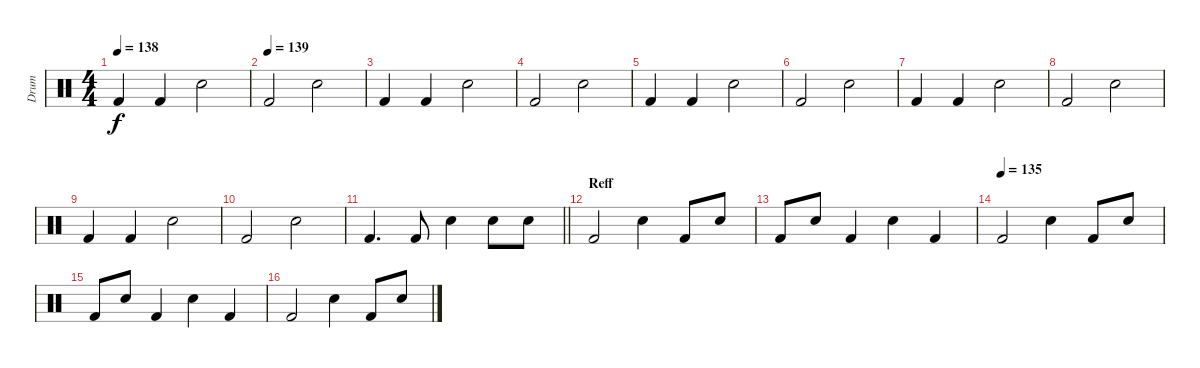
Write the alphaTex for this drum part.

\track ("Drum" "Drum") {instrument percussion}
\staff {score}
\articulation defaults
\ts (4 4)
\tempo 138
\clef neutral
\ks c "Kick (hit) 2".4{dy f} "Kick (hit) 2".4 "Electric Snare (hit)".2
|
\tempo (139)
"Kick (hit) 2".2 "Electric Snare (hit)".2 |
"Kick (hit) 2".4 "Kick (hit) 2".4 "Electric Snare (hit)".2 |
"Kick (hit) 2".2 "Electric Snare (hit)".2 |
"Kick (hit) 2".4 "Kick (hit) 2".4 "Electric Snare (hit)".2 |
"Kick (hit) 2".2 "Electric Snare (hit)".2 |
"Kick (hit) 2".4 "Kick (hit) 2".4 "Electric Snare (hit)".2 |
"Kick (hit) 2".2 "Electric Snare (hit)".2 |
"Kick (hit) 2".4 "Kick (hit) 2".4 "Electric Snare (hit)".2 |
"Kick (hit) 2".2 "Electric Snare (hit)".2 |
\barLineRight lightlight "Kick (hit) 2".4{d} "Kick (hit) 2".8 "Electric Snare (hit)".4 "Electric Snare (hit)".8 "Electric Snare (hit)".8
|
\section ("" "Reff")
"Kick (hit) 2".2 "Electric Snare (hit)".4 "Kick (hit) 2".8 "Electric Snare (hit)".8 |
"Kick (hit) 2".8 "Electric Snare (hit)".8 "Kick (hit) 2".4 "Electric Snare (hit)".4 "Kick (hit) 2".4 |
\tempo (135)
"Kick (hit) 2".2 "Electric Snare (hit)".4 "Kick (hit) 2".8 "Electric Snare (hit)".8 |
"Kick (hit) 2".8 "Electric Snare (hit)".8 "Kick (hit) 2".4 "Electric Snare (hit)".4 "Kick (hit) 2".4 |
"Kick (hit) 2".2 "Electric Snare (hit)".4 "Kick (hit) 2".8 "Electric Snare (hit)".8
